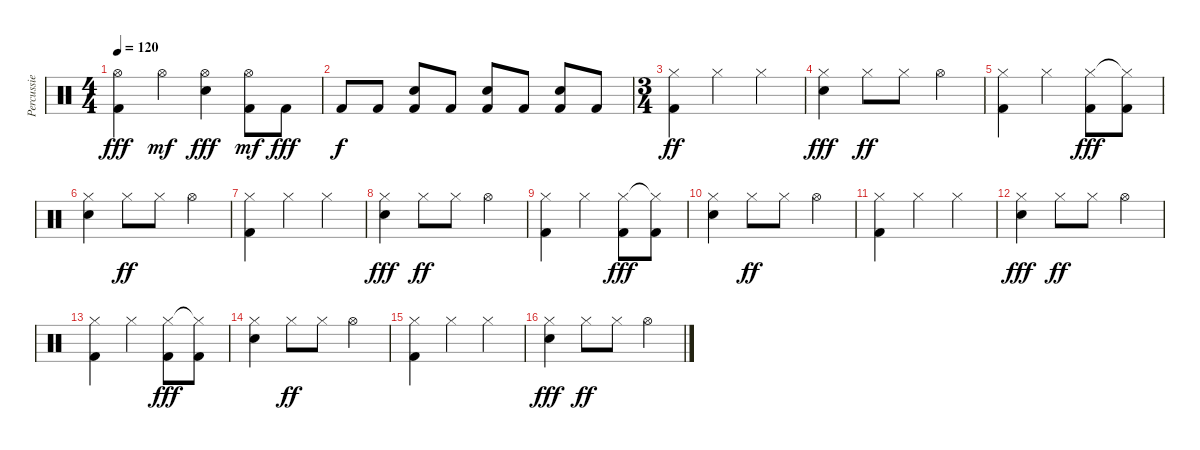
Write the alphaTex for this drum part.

\track ("Percussie" "Percussie") {instrument percussion}
\staff {score}
\articulation defaults
\ts (4 4)
\tempo 120
\clef neutral
\ks c
("Hi-Hat (open)" "Kick (hit) 2").4{dy fff} "Hi-Hat (open)".4{dy mf} ("Hi-Hat (open)" "Electric Snare (hit)").4{dy fff} ("Kick (hit) 2" "Hi-Hat (open)").8{dy mf} "Kick (hit) 2".8{dy fff} |
"Kick (hit) 2".8{dy f} "Kick (hit) 2".8 ("Kick (hit) 2" "Electric Snare (hit)").8 "Kick (hit) 2".8 ("Kick (hit) 2" "Electric Snare (hit)").8 "Kick (hit) 2".8 ("Kick (hit) 2" "Electric Snare (hit)").8 "Kick (hit) 2".8 |
\ts (3 4)
("Hi-Hat (closed)" "Kick (hit) 2").4{dy ff} "Hi-Hat (closed)".4 "Hi-Hat (closed)".4 |
("Hi-Hat (closed)" "Electric Snare (hit)").4{dy fff} "Hi-Hat (closed)".8{dy ff} "Hi-Hat (closed)".8 "Hi-Hat (open)".4 |
("Hi-Hat (closed)" "Kick (hit) 2").4 "Hi-Hat (closed)".4 ("Hi-Hat (closed)" "Kick (hit) 2").8{dy fff} ("Hi-Hat (closed)"{t} "Kick (hit) 2").8 |
("Hi-Hat (closed)" "Electric Snare (hit)").4 "Hi-Hat (closed)".8{dy ff} "Hi-Hat (closed)".8 "Hi-Hat (open)".4 |
("Hi-Hat (closed)" "Kick (hit) 2").4 "Hi-Hat (closed)".4 "Hi-Hat (closed)".4 |
("Hi-Hat (closed)" "Electric Snare (hit)").4{dy fff} "Hi-Hat (closed)".8{dy ff} "Hi-Hat (closed)".8 "Hi-Hat (open)".4 |
("Hi-Hat (closed)" "Kick (hit) 2").4 "Hi-Hat (closed)".4 ("Hi-Hat (closed)" "Kick (hit) 2").8{dy fff} ("Hi-Hat (closed)"{t} "Kick (hit) 2").8 |
("Hi-Hat (closed)" "Electric Snare (hit)").4 "Hi-Hat (closed)".8{dy ff} "Hi-Hat (closed)".8 "Hi-Hat (open)".4 |
("Hi-Hat (closed)" "Kick (hit) 2").4 "Hi-Hat (closed)".4 "Hi-Hat (closed)".4 |
("Hi-Hat (closed)" "Electric Snare (hit)").4{dy fff} "Hi-Hat (closed)".8{dy ff} "Hi-Hat (closed)".8 "Hi-Hat (open)".4 |
("Hi-Hat (closed)" "Kick (hit) 2").4 "Hi-Hat (closed)".4 ("Hi-Hat (closed)" "Kick (hit) 2").8{dy fff} ("Hi-Hat (closed)"{t} "Kick (hit) 2").8 |
("Hi-Hat (closed)" "Electric Snare (hit)").4 "Hi-Hat (closed)".8{dy ff} "Hi-Hat (closed)".8 "Hi-Hat (open)".4 |
("Hi-Hat (closed)" "Kick (hit) 2").4 "Hi-Hat (closed)".4 "Hi-Hat (closed)".4 |
("Hi-Hat (closed)" "Electric Snare (hit)").4{dy fff} "Hi-Hat (closed)".8{dy ff} "Hi-Hat (closed)".8 "Hi-Hat (open)".4
